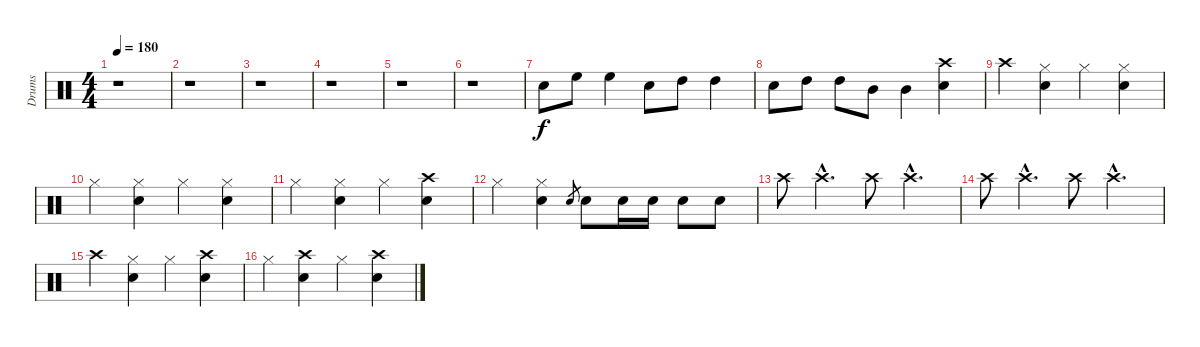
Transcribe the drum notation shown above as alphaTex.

\track ("Drums" "Drums") {instrument percussion}
\staff {score}
\articulation defaults
\ts (4 4)
\tempo 180
\clef neutral
\ks c
r.1{dy f} |
r.1 |
r.1 |
r.1 |
r.1 |
r.1 |
"Snare (hit) 2".8 "High Floor Tom (hit)".8 "High Floor Tom (hit)".4 "Snare (hit) 2".8 "High Tom (hit)".8 "High Tom (hit)".4 |
"Snare (hit) 2".8 "High Tom (hit)".8 "High Tom (hit)".8 "Mid Tom (hit)".8 "Mid Tom (hit)".4 ("Crash high (hit)" "Snare (hit) 2").4 |
"Crash high (hit)".4 ("Hi-Hat (closed)" "Snare (hit) 2").4 "Hi-Hat (closed)".4 ("Hi-Hat (closed)" "Snare (hit) 2").4 |
"Hi-Hat (closed)".4 ("Hi-Hat (closed)" "Snare (hit) 2").4 "Hi-Hat (closed)".4 ("Hi-Hat (closed)" "Snare (hit) 2").4 |
"Hi-Hat (closed)".4 ("Hi-Hat (closed)" "Snare (hit) 2").4 "Hi-Hat (closed)".4 ("Crash high (hit)" "Snare (hit) 2").4 |
"Hi-Hat (closed)".4 ("Hi-Hat (closed)" "Snare (hit) 2").4 "Snare (hit) 2".8{gr} "Snare (hit) 2".8 "Snare (hit) 2".16 "Snare (hit) 2".16 "Snare (hit) 2".8 "Snare (hit) 2".8 |
"Crash high (hit)".8 "Crash high (hit)"{hac}.4{d} "Crash high (hit)".8 "Crash high (hit)"{hac}.4{d} |
"Crash high (hit)".8 "Crash high (hit)"{hac}.4{d} "Crash high (hit)".8 "Crash high (hit)"{hac}.4{d} |
"Crash high (hit)".4 ("Hi-Hat (closed)" "Snare (hit) 2").4 "Hi-Hat (closed)".4 ("Crash high (hit)" "Snare (hit) 2").4 |
"Hi-Hat (closed)".4 ("Crash high (hit)" "Snare (hit) 2").4 "Hi-Hat (closed)".4 ("Crash high (hit)" "Snare (hit) 2").4
